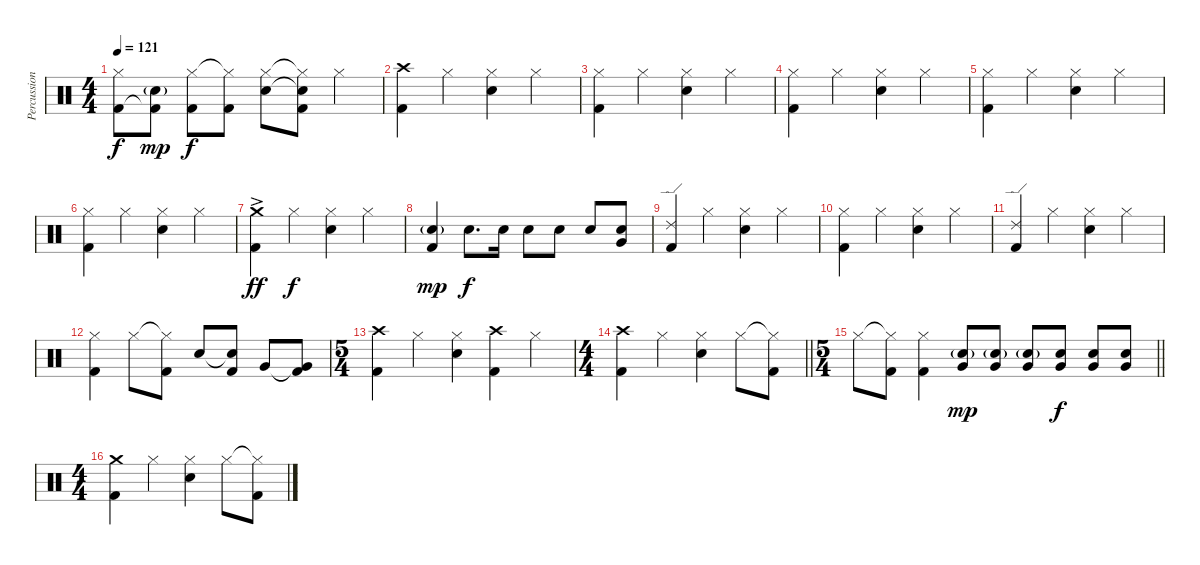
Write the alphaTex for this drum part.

\track ("Percussioni" "Percussion") {instrument percussion}
\staff {score}
\articulation defaults
\ts (4 4)
\tempo 121
\clef neutral
\ks c
("Hi-Hat (closed)" "Kick (hit) 2").8{dy f} ("Snare (hit) 2"{g} "Kick (hit) 2"{t}).8{dy mp} ("Hi-Hat (closed)" "Kick (hit) 2").8{dy f} ("Hi-Hat (closed)"{t} "Kick (hit) 2").8 ("Hi-Hat (closed)" "Snare (hit) 2").8 ("Hi-Hat (closed)"{t} "Snare (hit) 2"{t} "Kick (hit) 2").8 "Hi-Hat (closed)".4 |
("Crash high (hit)" "Kick (hit) 2").4 "Hi-Hat (closed)".4 ("Hi-Hat (closed)" "Snare (hit) 2").4 "Hi-Hat (closed)".4 |
("Hi-Hat (closed)" "Kick (hit) 2").4 "Hi-Hat (closed)".4 ("Hi-Hat (closed)" "Snare (hit) 2").4 "Hi-Hat (closed)".4 |
("Hi-Hat (closed)" "Kick (hit) 2").4 "Hi-Hat (closed)".4 ("Hi-Hat (closed)" "Snare (hit) 2").4 "Hi-Hat (closed)".4 |
("Hi-Hat (closed)" "Kick (hit) 2").4 "Hi-Hat (closed)".4 ("Hi-Hat (closed)" "Snare (hit) 2").4 "Hi-Hat (closed)".4 |
("Hi-Hat (closed)" "Kick (hit) 2").4 "Hi-Hat (closed)".4 ("Hi-Hat (closed)" "Snare (hit) 2").4 "Hi-Hat (closed)".4 |
("Crash medium (hit)"{ac} "Kick (hit) 2").4{dy ff} "Hi-Hat (closed)".4{dy f} ("Hi-Hat (closed)" "Snare (hit) 2").4 "Hi-Hat (closed)".4 |
("Snare (hit) 2"{g} "Kick (hit) 2").4{dy mp} "Snare (hit) 2".8{d dy f} "Snare (hit) 2".16 "Snare (hit) 2".8 "Snare (hit) 2".8 "Snare (hit) 2".8 ("Snare (hit) 2" "Very Low Tom (hit)").8 |
("Ride (edge) 2" "Kick (hit) 2").4 "Hi-Hat (closed)".4 ("Hi-Hat (closed)" "Snare (hit) 2").4 "Hi-Hat (closed)".4 |
("Hi-Hat (closed)" "Kick (hit) 2").4 "Hi-Hat (closed)".4 ("Hi-Hat (closed)" "Snare (hit) 2").4 "Hi-Hat (closed)".4 |
("Ride (edge) 2" "Kick (hit) 2").4 "Hi-Hat (closed)".4 ("Hi-Hat (closed)" "Snare (hit) 2").4 "Hi-Hat (closed)".4 |
("Hi-Hat (closed)" "Kick (hit) 2").4 "Hi-Hat (closed)".8 ("Hi-Hat (closed)"{t} "Kick (hit) 2").8 "Snare (hit) 2".8 ("Snare (hit) 2"{t} "Kick (hit) 2").8 "Very Low Tom (hit)".8 ("Very Low Tom (hit)"{t} "Kick (hit) 2").8 |
\ts (5 4)
("Crash high (hit)" "Kick (hit) 2").4 "Hi-Hat (closed)".4 ("Hi-Hat (closed)" "Snare (hit) 2").4 ("Crash high (hit)" "Kick (hit) 2").4 "Hi-Hat (closed)".4 |
\ts (4 4)
\barLineRight lightlight
("Crash high (hit)" "Kick (hit) 2").4 "Hi-Hat (closed)".4 ("Hi-Hat (closed)" "Snare (hit) 2").4 "Hi-Hat (closed)".8 ("Hi-Hat (closed)"{t} "Kick (hit) 2").8 |
\ts (5 4)
\barLineRight lightlight "Hi-Hat (closed)".8
("Hi-Hat (closed)"{t} "Kick (hit) 2").8 ("Hi-Hat (closed)" "Kick (hit) 2").4 ("Snare (hit) 2"{g} "Very Low Tom (hit)").8{dy mp} ("Snare (hit) 2"{g} "Very Low Tom (hit)").8 ("Snare (hit) 2"{g} "Very Low Tom (hit)").8 ("Snare (hit) 2" "Very Low Tom (hit)").8{dy f} ("Snare (hit) 2" "Very Low Tom (hit)").8 ("Snare (hit) 2" "Very Low Tom (hit)").8 |
\ts (4 4)
("Crash medium (hit)" "Kick (hit) 2").4 "Hi-Hat (closed)".4 ("Hi-Hat (closed)" "Snare (hit) 2").4 "Hi-Hat (closed)".8 ("Hi-Hat (closed)"{t} "Kick (hit) 2").8
